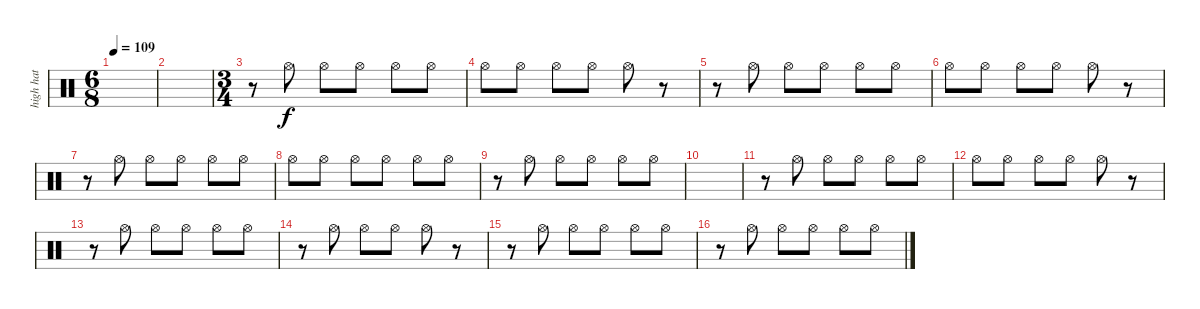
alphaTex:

\track ("high hat" "high hat") {instrument percussion}
\staff {score}
\articulation defaults
\ts (6 8)
\tempo 109
\clef neutral
\ks c
|
|
\ts (3 4)
r.8 "Hi-Hat (open)".8 "Hi-Hat (open)".8 "Hi-Hat (open)".8 "Hi-Hat (open)".8 "Hi-Hat (open)".8 |
"Hi-Hat (open)".8 "Hi-Hat (open)".8 "Hi-Hat (open)".8 "Hi-Hat (open)".8 "Hi-Hat (open)".8 r.8 |
r.8 "Hi-Hat (open)".8 "Hi-Hat (open)".8 "Hi-Hat (open)".8 "Hi-Hat (open)".8 "Hi-Hat (open)".8 |
"Hi-Hat (open)".8 "Hi-Hat (open)".8 "Hi-Hat (open)".8 "Hi-Hat (open)".8 "Hi-Hat (open)".8 r.8 |
r.8 "Hi-Hat (open)".8 "Hi-Hat (open)".8 "Hi-Hat (open)".8 "Hi-Hat (open)".8 "Hi-Hat (open)".8 |
"Hi-Hat (open)".8 "Hi-Hat (open)".8 "Hi-Hat (open)".8 "Hi-Hat (open)".8 "Hi-Hat (open)".8 "Hi-Hat (open)".8 |
r.8 "Hi-Hat (open)".8 "Hi-Hat (open)".8 "Hi-Hat (open)".8 "Hi-Hat (open)".8 "Hi-Hat (open)".8 |
|
r.8 "Hi-Hat (open)".8 "Hi-Hat (open)".8 "Hi-Hat (open)".8 "Hi-Hat (open)".8 "Hi-Hat (open)".8 |
"Hi-Hat (open)".8 "Hi-Hat (open)".8 "Hi-Hat (open)".8 "Hi-Hat (open)".8 "Hi-Hat (open)".8 r.8 |
r.8 "Hi-Hat (open)".8 "Hi-Hat (open)".8 "Hi-Hat (open)".8 "Hi-Hat (open)".8 "Hi-Hat (open)".8 |
r.8 "Hi-Hat (open)".8 "Hi-Hat (open)".8 "Hi-Hat (open)".8 "Hi-Hat (open)".8 r.8 |
r.8 "Hi-Hat (open)".8 "Hi-Hat (open)".8 "Hi-Hat (open)".8 "Hi-Hat (open)".8 "Hi-Hat (open)".8 |
r.8 "Hi-Hat (open)".8 "Hi-Hat (open)".8 "Hi-Hat (open)".8 "Hi-Hat (open)".8 "Hi-Hat (open)".8
